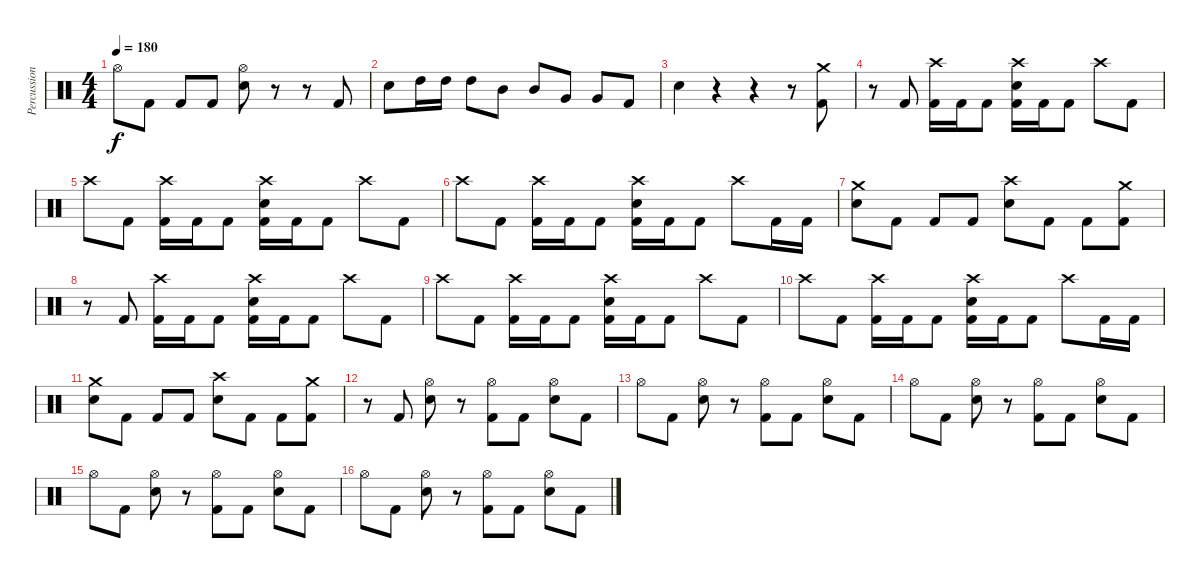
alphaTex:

\track ("Percussion" "Percussion") {instrument percussion}
\staff {score}
\articulation defaults
\ts (4 4)
\tempo 180
\clef neutral
\ks c "Hi-Hat (open)".8{dy f} "Kick (hit) 2".8 "Kick (hit) 2".8 "Kick (hit) 2".8
("Hi-Hat (open)" "Electric Snare (hit)").8 r.8 r.8 "Kick (hit) 2".8 |
"Electric Snare (hit)".8 "High Tom (hit)".16 "High Tom (hit)".16 "High Tom (hit)".8 "Mid Tom (hit)".8 "Mid Tom (hit)".8 "Very Low Tom (hit)".8 "Very Low Tom (hit)".8 "Kick (hit) 2".8 |
"Electric Snare (hit)".4 r.4 r.4 r.8 ("Kick (hit) 2" "Crash medium (hit)").8 |
r.8 "Kick (hit) 2".8 ("Crash high (hit)" "Kick (hit) 2").16 "Kick (hit) 2".16 "Kick (hit) 2".8 ("Crash high (hit)" "Electric Snare (hit)" "Kick (hit) 2").16 "Kick (hit) 2".16 "Kick (hit) 2".8 "Crash high (hit)".8 "Kick (hit) 2".8 |
"Crash high (hit)".8 "Kick (hit) 2".8 ("Crash high (hit)" "Kick (hit) 2").16 "Kick (hit) 2".16 "Kick (hit) 2".8 ("Crash high (hit)" "Electric Snare (hit)" "Kick (hit) 2").16 "Kick (hit) 2".16 "Kick (hit) 2".8 "Crash high (hit)".8 "Kick (hit) 2".8 |
"Crash high (hit)".8 "Kick (hit) 2".8 ("Crash high (hit)" "Kick (hit) 2").16 "Kick (hit) 2".16 "Kick (hit) 2".8 ("Crash high (hit)" "Electric Snare (hit)" "Kick (hit) 2").16 "Kick (hit) 2".16 "Kick (hit) 2".8 "Crash high (hit)".8 "Kick (hit) 2".16 "Kick (hit) 2".16 |
("Electric Snare (hit)" "Crash medium (hit)").8 "Kick (hit) 2".8 "Kick (hit) 2".8 "Kick (hit) 2".8 ("Electric Snare (hit)" "Crash high (hit)").8 "Kick (hit) 2".8 "Kick (hit) 2".8 ("Kick (hit) 2" "Crash medium (hit)").8 |
r.8 "Kick (hit) 2".8 ("Crash high (hit)" "Kick (hit) 2").16 "Kick (hit) 2".16 "Kick (hit) 2".8 ("Crash high (hit)" "Electric Snare (hit)" "Kick (hit) 2").16 "Kick (hit) 2".16 "Kick (hit) 2".8 "Crash high (hit)".8 "Kick (hit) 2".8 |
"Crash high (hit)".8 "Kick (hit) 2".8 ("Crash high (hit)" "Kick (hit) 2").16 "Kick (hit) 2".16 "Kick (hit) 2".8 ("Crash high (hit)" "Electric Snare (hit)" "Kick (hit) 2").16 "Kick (hit) 2".16 "Kick (hit) 2".8 "Crash high (hit)".8 "Kick (hit) 2".8 |
"Crash high (hit)".8 "Kick (hit) 2".8 ("Crash high (hit)" "Kick (hit) 2").16 "Kick (hit) 2".16 "Kick (hit) 2".8 ("Crash high (hit)" "Electric Snare (hit)" "Kick (hit) 2").16 "Kick (hit) 2".16 "Kick (hit) 2".8 "Crash high (hit)".8 "Kick (hit) 2".16 "Kick (hit) 2".16 |
("Electric Snare (hit)" "Crash medium (hit)").8 "Kick (hit) 2".8 "Kick (hit) 2".8 "Kick (hit) 2".8 ("Electric Snare (hit)" "Crash high (hit)").8 "Kick (hit) 2".8 "Kick (hit) 2".8 ("Kick (hit) 2" "Crash medium (hit)").8 |
r.8 "Kick (hit) 2".8 ("Hi-Hat (open)" "Electric Snare (hit)").8 r.8 ("Hi-Hat (open)" "Kick (hit) 2").8 "Kick (hit) 2".8 ("Hi-Hat (open)" "Electric Snare (hit)").8 "Kick (hit) 2".8 |
"Hi-Hat (open)".8 "Kick (hit) 2".8 ("Hi-Hat (open)" "Electric Snare (hit)").8 r.8 ("Hi-Hat (open)" "Kick (hit) 2").8 "Kick (hit) 2".8 ("Hi-Hat (open)" "Electric Snare (hit)").8 "Kick (hit) 2".8 |
"Hi-Hat (open)".8 "Kick (hit) 2".8 ("Hi-Hat (open)" "Electric Snare (hit)").8 r.8 ("Hi-Hat (open)" "Kick (hit) 2").8 "Kick (hit) 2".8 ("Hi-Hat (open)" "Electric Snare (hit)").8 "Kick (hit) 2".8 |
"Hi-Hat (open)".8 "Kick (hit) 2".8 ("Hi-Hat (open)" "Electric Snare (hit)").8 r.8 ("Hi-Hat (open)" "Kick (hit) 2").8 "Kick (hit) 2".8 ("Hi-Hat (open)" "Electric Snare (hit)").8 "Kick (hit) 2".8 |
"Hi-Hat (open)".8 "Kick (hit) 2".8 ("Hi-Hat (open)" "Electric Snare (hit)").8 r.8 ("Hi-Hat (open)" "Kick (hit) 2").8 "Kick (hit) 2".8 ("Hi-Hat (open)" "Electric Snare (hit)").8 "Kick (hit) 2".8
